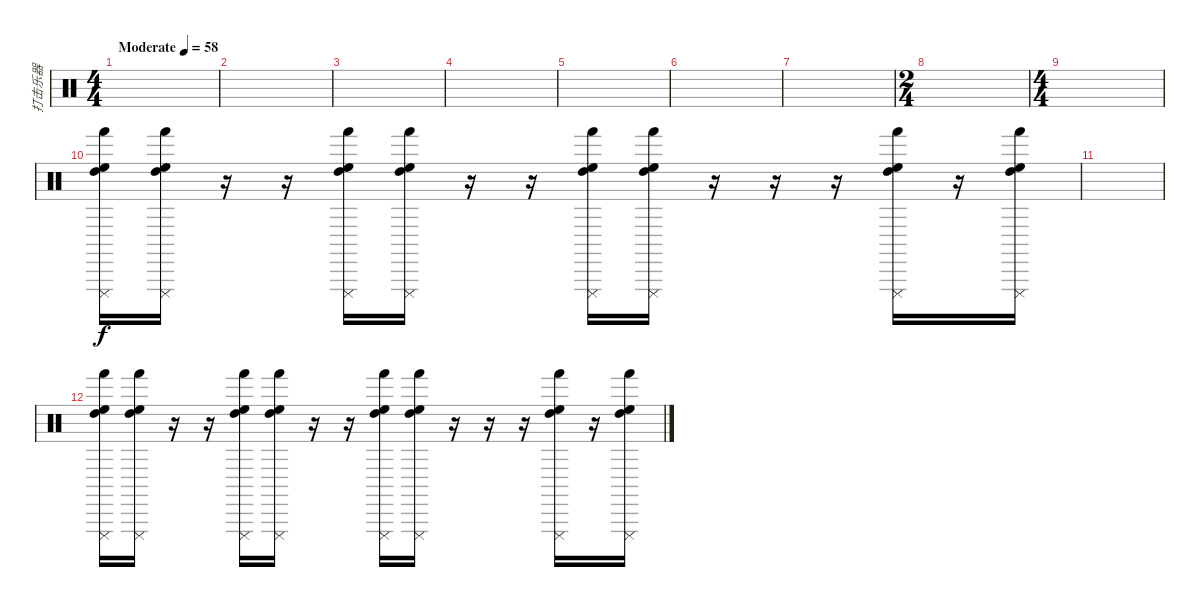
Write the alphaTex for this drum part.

\track ("打击乐器" "打击乐器") {instrument percussion}
\staff {score}
\articulation defaults
\ts (4 4)
\tempo (58 "Moderate")
\clef neutral
\ks c
|
|
|
|
|
|
|
\ts (2 4)
|
\ts (4 4)
|
("Hand (hit)" "Cuica (mute)" "High Floor Tom (hit)" "High Tom (hit)").16 ("Hand (hit)" "Cuica (mute)" "High Floor Tom (hit)" "High Tom (hit)").16 r.16 r.16 ("Hand (hit)" "Cuica (mute)" "High Floor Tom (hit)" "High Tom (hit)").16 ("Hand (hit)" "Cuica (mute)" "High Floor Tom (hit)" "High Tom (hit)").16 r.16 r.16 ("Hand (hit)" "Cuica (mute)" "High Floor Tom (hit)" "High Tom (hit)").16 ("Hand (hit)" "Cuica (mute)" "High Floor Tom (hit)" "High Tom (hit)").16 r.16 r.16 r.16 ("Hand (hit)" "Cuica (mute)" "High Floor Tom (hit)" "High Tom (hit)").16 r.16 ("Hand (hit)" "Cuica (mute)" "High Floor Tom (hit)" "High Tom (hit)").16 |
|
("Hand (hit)" "Cuica (mute)" "High Floor Tom (hit)" "High Tom (hit)").16 ("Hand (hit)" "Cuica (mute)" "High Floor Tom (hit)" "High Tom (hit)").16 r.16 r.16 ("Hand (hit)" "Cuica (mute)" "High Floor Tom (hit)" "High Tom (hit)").16 ("Hand (hit)" "Cuica (mute)" "High Floor Tom (hit)" "High Tom (hit)").16 r.16 r.16 ("Hand (hit)" "Cuica (mute)" "High Floor Tom (hit)" "High Tom (hit)").16 ("Hand (hit)" "Cuica (mute)" "High Floor Tom (hit)" "High Tom (hit)").16 r.16 r.16 r.16 ("Hand (hit)" "Cuica (mute)" "High Floor Tom (hit)" "High Tom (hit)").16 r.16 ("Hand (hit)" "Cuica (mute)" "High Floor Tom (hit)" "High Tom (hit)").16
